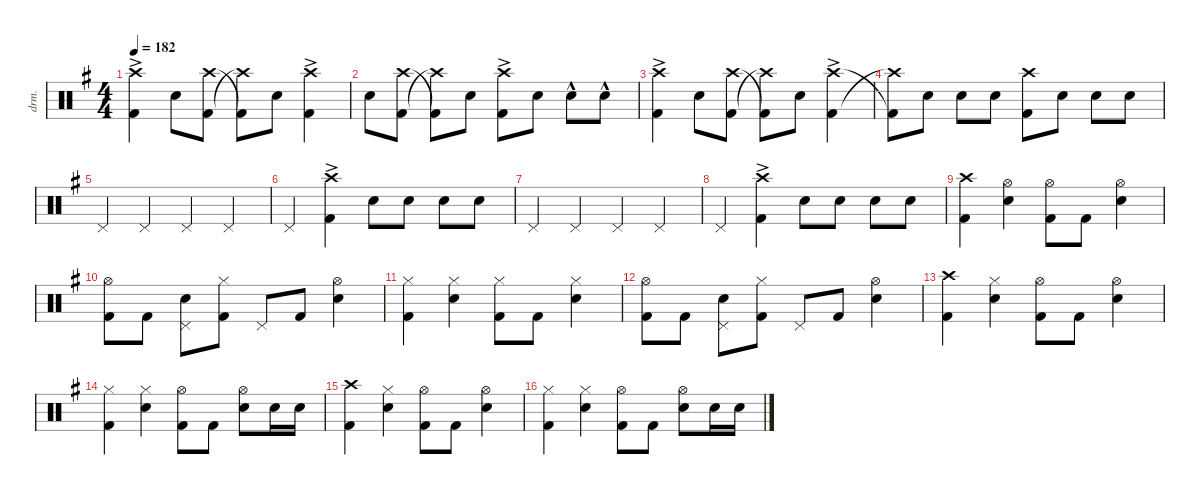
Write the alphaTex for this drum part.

\defaultSystemsLayout 4
\hideDynamics
\bracketExtendMode nobrackets
\otherSystemsTrackNameOrientation horizontal
\track ("Drum" "drm.") {defaultSystemsLayout 4 instrument percussion}
\staff {score}
\articulation defaults
\ts (4 4)
\tempo 182
\clef neutral
\ks g
("Kick (hit) 2"{acc forcenatural} "Crash high (hit)"{ac acc forcenatural}).4{dy f beam Down} "Snare (hit) 2"{acc forcenatural}.8{beam Down} ("Kick (hit) 2"{acc forcenatural} "Crash high (hit)"{acc forcenatural}).8{beam Down} ("Crash high (hit)"{t acc forcenatural} "Kick (hit) 2"{t acc forcenatural}).8{beam Down} "Snare (hit) 2"{acc forcenatural}.8{beam Down} ("Kick (hit) 2"{ac acc forcenatural} "Crash high (hit)"{acc forcenatural}).4{beam Down} |
"Snare (hit) 2"{acc forcenatural}.8{beam Down} ("Kick (hit) 2"{acc forcenatural} "Crash high (hit)"{acc forcenatural}).8{beam Down} ("Crash high (hit)"{t acc forcenatural} "Kick (hit) 2"{t acc forcenatural}).8{beam Down} "Snare (hit) 2"{acc forcenatural}.8{beam Down} ("Kick (hit) 2"{ac acc forcenatural} "Crash high (hit)"{acc forcenatural}).8{beam Down} "Snare (hit) 2"{acc forcenatural}.8{beam Down} "Snare (hit) 2"{hac acc forcenatural}.8{beam Down} "Snare (hit) 2"{hac acc forcenatural}.8{beam Down} |
("Kick (hit) 2"{acc forcenatural} "Crash high (hit)"{ac acc forcenatural}).4{beam Down} "Snare (hit) 2"{acc forcenatural}.8{beam Down} ("Kick (hit) 2"{acc forcenatural} "Crash high (hit)"{acc forcenatural}).8{beam Down} ("Crash high (hit)"{t acc forcenatural} "Kick (hit) 2"{t acc forcenatural}).8{beam Down} "Snare (hit) 2"{acc forcenatural}.8{beam Down} ("Kick (hit) 2"{ac acc forcenatural} "Crash high (hit)"{acc forcenatural}).4{beam Down} |
("Crash high (hit)"{t acc forcenatural} "Kick (hit) 2"{t acc forcenatural}).8{beam Down} "Snare (hit) 2"{acc forcenatural}.8{beam Down} "Snare (hit) 2"{acc forcenatural}.8{beam Down} "Snare (hit) 2"{acc forcenatural}.8{beam Down} ("Kick (hit) 2"{acc forcenatural} "Crash high (hit)"{acc forcenatural}).8{beam Down} "Snare (hit) 2"{acc forcenatural}.8{beam Down} "Snare (hit) 2"{acc forcenatural}.8{beam Down} "Snare (hit) 2"{acc forcenatural}.8{beam Down} |
"Pedal Hi-Hat (hit)"{acc forcenatural}.4{beam Up} "Pedal Hi-Hat (hit)"{acc forcenatural}.4{beam Up} "Pedal Hi-Hat (hit)"{acc forcenatural}.4{beam Up} "Pedal Hi-Hat (hit)"{acc forcenatural}.4{beam Up} |
"Pedal Hi-Hat (hit)"{acc forcenatural}.4{beam Up} ("Kick (hit) 2"{ac acc forcenatural} "Crash high (hit)"{acc forcenatural}).4{beam Down} "Snare (hit) 2"{acc forcenatural}.8{beam Down} "Snare (hit) 2"{acc forcenatural}.8{beam Down} "Snare (hit) 2"{acc forcenatural}.8{beam Down} "Snare (hit) 2"{acc forcenatural}.8{beam Down} |
"Pedal Hi-Hat (hit)"{acc forcenatural}.4{beam Up} "Pedal Hi-Hat (hit)"{acc forcenatural}.4{beam Up} "Pedal Hi-Hat (hit)"{acc forcenatural}.4{beam Up} "Pedal Hi-Hat (hit)"{acc forcenatural}.4{beam Up} |
"Pedal Hi-Hat (hit)"{acc forcenatural}.4{beam Up} ("Kick (hit) 2"{ac acc forcenatural} "Crash high (hit)"{acc forcenatural}).4{beam Down} "Snare (hit) 2"{acc forcenatural}.8{beam Down} "Snare (hit) 2"{acc forcenatural}.8{beam Down} "Snare (hit) 2"{acc forcenatural}.8{beam Down} "Snare (hit) 2"{acc forcenatural}.8{beam Down} |
("Kick (hit) 2"{acc forcenatural} "Crash high (hit)"{acc forcenatural}).4{beam Down} ("Snare (hit) 2"{acc forcenatural} "Hi-Hat (open)"{acc forcenatural}).4{beam Down} ("Kick (hit) 2"{acc forcenatural} "Hi-Hat (open)"{acc forcenatural}).8{beam Down} "Kick (hit) 2"{acc forcenatural}.8{beam Down} ("Snare (hit) 2"{acc forcenatural} "Hi-Hat (open)"{acc forcenatural}).4{beam Down} |
("Kick (hit) 2"{acc forcenatural} "Hi-Hat (open)"{acc forcenatural}).8{beam Down} "Kick (hit) 2"{acc forcenatural}.8{beam Down} ("Snare (hit) 2"{acc forcenatural} "Pedal Hi-Hat (hit)"{acc forcenatural}).8{beam Down} ("Kick (hit) 2"{acc forcenatural} "Hi-Hat (closed)"{acc forcenatural}).8{beam Down} "Pedal Hi-Hat (hit)"{acc forcenatural}.8{beam Up} "Kick (hit) 2"{acc forcenatural}.8{beam Up} ("Snare (hit) 2"{acc forcenatural} "Hi-Hat (open)"{acc forcenatural}).4{beam Down} |
("Kick (hit) 2"{acc forcenatural} "Hi-Hat (closed)"{acc forcenatural}).4{beam Down} ("Snare (hit) 2"{acc forcenatural} "Hi-Hat (closed)"{acc forcenatural}).4{beam Down} ("Kick (hit) 2"{acc forcenatural} "Hi-Hat (closed)"{acc forcenatural}).8{beam Down} "Kick (hit) 2"{acc forcenatural}.8{beam Down} ("Snare (hit) 2"{acc forcenatural} "Hi-Hat (closed)"{acc forcenatural}).4{beam Down} |
("Kick (hit) 2"{acc forcenatural} "Hi-Hat (open)"{acc forcenatural}).8{beam Down} "Kick (hit) 2"{acc forcenatural}.8{beam Down} ("Snare (hit) 2"{acc forcenatural} "Pedal Hi-Hat (hit)"{acc forcenatural}).8{beam Down} ("Kick (hit) 2"{acc forcenatural} "Hi-Hat (closed)"{acc forcenatural}).8{beam Down} "Pedal Hi-Hat (hit)"{acc forcenatural}.8{beam Up} "Kick (hit) 2"{acc forcenatural}.8{beam Up} ("Snare (hit) 2"{acc forcenatural} "Hi-Hat (open)"{acc forcenatural}).4{beam Down} |
("Kick (hit) 2"{acc forcenatural} "Crash high (hit)"{acc forcenatural}).4{beam Down} ("Snare (hit) 2"{acc forcenatural} "Hi-Hat (closed)"{acc forcenatural}).4{beam Down} ("Kick (hit) 2"{acc forcenatural} "Hi-Hat (open)"{acc forcenatural}).8{beam Down} "Kick (hit) 2"{acc forcenatural}.8{beam Down} ("Snare (hit) 2"{acc forcenatural} "Hi-Hat (open)"{acc forcenatural}).4{beam Down} |
("Kick (hit) 2"{acc forcenatural} "Hi-Hat (closed)"{acc forcenatural}).4{beam Down} ("Snare (hit) 2"{acc forcenatural} "Hi-Hat (closed)"{acc forcenatural}).4{beam Down} ("Kick (hit) 2"{acc forcenatural} "Hi-Hat (open)"{acc forcenatural}).8{beam Down} "Kick (hit) 2"{acc forcenatural}.8{beam Down} ("Snare (hit) 2"{acc forcenatural} "Hi-Hat (open)"{acc forcenatural}).8{beam Down} "Snare (hit) 2"{acc forcenatural}.16{beam Down} "Snare (hit) 2"{acc forcenatural}.16{beam Down} |
("Kick (hit) 2"{acc forcenatural} "Crash high (hit)"{acc forcenatural}).4{beam Down} ("Snare (hit) 2"{acc forcenatural} "Hi-Hat (closed)"{acc forcenatural}).4{beam Down} ("Kick (hit) 2"{acc forcenatural} "Hi-Hat (open)"{acc forcenatural}).8{beam Down} "Kick (hit) 2"{acc forcenatural}.8{beam Down} ("Snare (hit) 2"{acc forcenatural} "Hi-Hat (open)"{acc forcenatural}).4{beam Down} |
("Kick (hit) 2"{acc forcenatural} "Hi-Hat (closed)"{acc forcenatural}).4{beam Down} ("Snare (hit) 2"{acc forcenatural} "Hi-Hat (closed)"{acc forcenatural}).4{beam Down} ("Kick (hit) 2"{acc forcenatural} "Hi-Hat (open)"{acc forcenatural}).8{beam Down} "Kick (hit) 2"{acc forcenatural}.8{beam Down} ("Snare (hit) 2"{acc forcenatural} "Hi-Hat (open)"{acc forcenatural}).8{beam Down} "Snare (hit) 2"{acc forcenatural}.16{beam Down} "Snare (hit) 2"{acc forcenatural}.16{beam Down}
